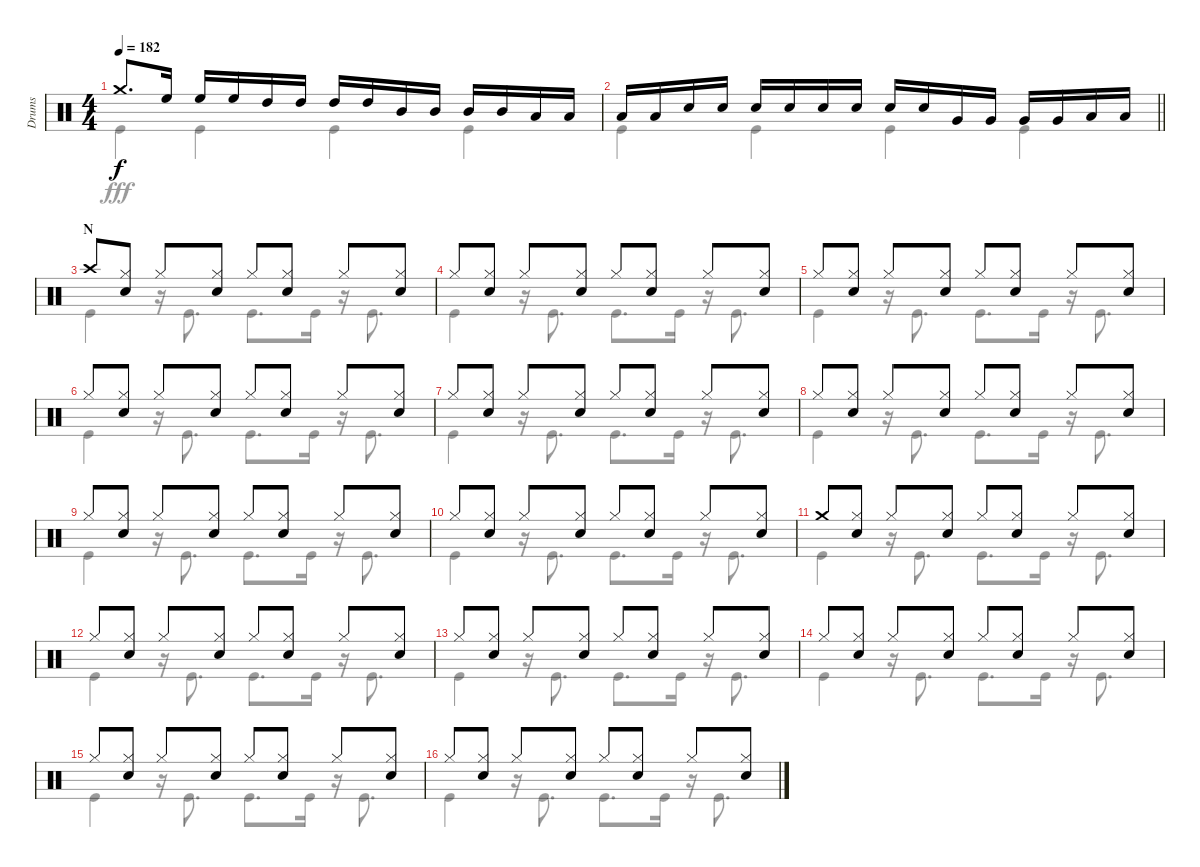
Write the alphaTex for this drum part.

\track ("Drums" "Drums") {instrument percussion}
\staff {score}
\articulation defaults
\voice
\ts (4 4)
\tempo 182
\clef neutral
\ks c "Crash medium (hit)".8{d dy f} "High Floor Tom (hit)".16 "High Floor Tom (hit)".16 "High Floor Tom (hit)".16 "High Tom (hit)".16 "High Tom (hit)".16 "High Tom (hit)".16 "High Tom (hit)".16 "Mid Tom (hit)".16 "Mid Tom (hit)".16 "Mid Tom (hit)".16 "Mid Tom (hit)".16 "Low Tom (hit)".16 "Low Tom (hit)".16
|
\barLineRight lightlight "Low Tom (hit)".16 "Low Tom (hit)".16 "Snare (hit) 2".16 "Snare (hit) 2".16 "Snare (hit) 2".16 "Snare (hit) 2".16 "Snare (hit) 2".16 "Snare (hit) 2".16 "Snare (hit) 2".16 "Snare (hit) 2".16 "Very Low Tom (hit)".16 "Very Low Tom (hit)".16 "Very Low Tom (hit)".16 "Very Low Tom (hit)".16 "Low Floor Tom (hit)".16 "Low Floor Tom (hit)".16
|
\section ("" "N")
"Crash high (hit)".8 ("Hi-Hat (closed)" "Snare (hit) 2").8 "Hi-Hat (closed)".8 ("Hi-Hat (closed)" "Snare (hit) 2").8 "Hi-Hat (closed)".8 ("Hi-Hat (closed)" "Snare (hit) 2").8 "Hi-Hat (closed)".8 ("Hi-Hat (closed)" "Snare (hit) 2").8 |
"Hi-Hat (closed)".8 ("Hi-Hat (closed)" "Snare (hit) 2").8 "Hi-Hat (closed)".8 ("Hi-Hat (closed)" "Snare (hit) 2").8 "Hi-Hat (closed)".8 ("Hi-Hat (closed)" "Snare (hit) 2").8 "Hi-Hat (closed)".8 ("Hi-Hat (closed)" "Snare (hit) 2").8 |
"Hi-Hat (closed)".8 ("Hi-Hat (closed)" "Snare (hit) 2").8 "Hi-Hat (closed)".8 ("Hi-Hat (closed)" "Snare (hit) 2").8 "Hi-Hat (closed)".8 ("Hi-Hat (closed)" "Snare (hit) 2").8 "Hi-Hat (closed)".8 ("Hi-Hat (closed)" "Snare (hit) 2").8 |
"Hi-Hat (closed)".8 ("Hi-Hat (closed)" "Snare (hit) 2").8 "Hi-Hat (closed)".8 ("Hi-Hat (closed)" "Snare (hit) 2").8 "Hi-Hat (closed)".8 ("Hi-Hat (closed)" "Snare (hit) 2").8 "Hi-Hat (closed)".8 ("Hi-Hat (closed)" "Snare (hit) 2").8 |
"Hi-Hat (closed)".8 ("Hi-Hat (closed)" "Snare (hit) 2").8 "Hi-Hat (closed)".8 ("Hi-Hat (closed)" "Snare (hit) 2").8 "Hi-Hat (closed)".8 ("Hi-Hat (closed)" "Snare (hit) 2").8 "Hi-Hat (closed)".8 ("Hi-Hat (closed)" "Snare (hit) 2").8 |
"Hi-Hat (closed)".8 ("Hi-Hat (closed)" "Snare (hit) 2").8 "Hi-Hat (closed)".8 ("Hi-Hat (closed)" "Snare (hit) 2").8 "Hi-Hat (closed)".8 ("Hi-Hat (closed)" "Snare (hit) 2").8 "Hi-Hat (closed)".8 ("Hi-Hat (closed)" "Snare (hit) 2").8 |
"Hi-Hat (closed)".8 ("Hi-Hat (closed)" "Snare (hit) 2").8 "Hi-Hat (closed)".8 ("Hi-Hat (closed)" "Snare (hit) 2").8 "Hi-Hat (closed)".8 ("Hi-Hat (closed)" "Snare (hit) 2").8 "Hi-Hat (closed)".8 ("Hi-Hat (closed)" "Snare (hit) 2").8 |
"Hi-Hat (closed)".8 ("Hi-Hat (closed)" "Snare (hit) 2").8 "Hi-Hat (closed)".8 ("Hi-Hat (closed)" "Snare (hit) 2").8 "Hi-Hat (closed)".8 ("Hi-Hat (closed)" "Snare (hit) 2").8 "Hi-Hat (closed)".8 ("Hi-Hat (closed)" "Snare (hit) 2").8 |
"Crash medium (hit)".8 ("Hi-Hat (closed)" "Snare (hit) 2").8 "Hi-Hat (closed)".8 ("Hi-Hat (closed)" "Snare (hit) 2").8 "Hi-Hat (closed)".8 ("Hi-Hat (closed)" "Snare (hit) 2").8 "Hi-Hat (closed)".8 ("Hi-Hat (closed)" "Snare (hit) 2").8 |
"Hi-Hat (closed)".8 ("Hi-Hat (closed)" "Snare (hit) 2").8 "Hi-Hat (closed)".8 ("Hi-Hat (closed)" "Snare (hit) 2").8 "Hi-Hat (closed)".8 ("Hi-Hat (closed)" "Snare (hit) 2").8 "Hi-Hat (closed)".8 ("Hi-Hat (closed)" "Snare (hit) 2").8 |
"Hi-Hat (closed)".8 ("Hi-Hat (closed)" "Snare (hit) 2").8 "Hi-Hat (closed)".8 ("Hi-Hat (closed)" "Snare (hit) 2").8 "Hi-Hat (closed)".8 ("Hi-Hat (closed)" "Snare (hit) 2").8 "Hi-Hat (closed)".8 ("Hi-Hat (closed)" "Snare (hit) 2").8 |
"Hi-Hat (closed)".8 ("Hi-Hat (closed)" "Snare (hit) 2").8 "Hi-Hat (closed)".8 ("Hi-Hat (closed)" "Snare (hit) 2").8 "Hi-Hat (closed)".8 ("Hi-Hat (closed)" "Snare (hit) 2").8 "Hi-Hat (closed)".8 ("Hi-Hat (closed)" "Snare (hit) 2").8 |
"Hi-Hat (closed)".8 ("Hi-Hat (closed)" "Snare (hit) 2").8 "Hi-Hat (closed)".8 ("Hi-Hat (closed)" "Snare (hit) 2").8 "Hi-Hat (closed)".8 ("Hi-Hat (closed)" "Snare (hit) 2").8 "Hi-Hat (closed)".8 ("Hi-Hat (closed)" "Snare (hit) 2").8 |
"Hi-Hat (closed)".8 ("Hi-Hat (closed)" "Snare (hit) 2").8 "Hi-Hat (closed)".8 ("Hi-Hat (closed)" "Snare (hit) 2").8 "Hi-Hat (closed)".8 ("Hi-Hat (closed)" "Snare (hit) 2").8 "Hi-Hat (closed)".8 ("Hi-Hat (closed)" "Snare (hit) 2").8
\voice
\clef neutral
\ottava regular
\simile none
\ks c "Kick (hit)".4{dy fff} "Kick (hit)".4 "Kick (hit)".4 "Kick (hit)".4
|
\barLineRight lightlight "Kick (hit)".4 "Kick (hit)".4 "Kick (hit)".4 "Kick (hit)".4
|
"Kick (hit)".4 r.16 "Kick (hit)".8{d} "Kick (hit)".8{d} "Kick (hit)".16 r.16 "Kick (hit)".8{d} |
"Kick (hit)".4 r.16 "Kick (hit)".8{d} "Kick (hit)".8{d} "Kick (hit)".16 r.16 "Kick (hit)".8{d} |
"Kick (hit)".4 r.16 "Kick (hit)".8{d} "Kick (hit)".8{d} "Kick (hit)".16 r.16 "Kick (hit)".8{d} |
"Kick (hit)".4 r.16 "Kick (hit)".8{d} "Kick (hit)".8{d} "Kick (hit)".16 r.16 "Kick (hit)".8{d} |
"Kick (hit)".4 r.16 "Kick (hit)".8{d} "Kick (hit)".8{d} "Kick (hit)".16 r.16 "Kick (hit)".8{d} |
"Kick (hit)".4 r.16 "Kick (hit)".8{d} "Kick (hit)".8{d} "Kick (hit)".16 r.16 "Kick (hit)".8{d} |
"Kick (hit)".4 r.16 "Kick (hit)".8{d} "Kick (hit)".8{d} "Kick (hit)".16 r.16 "Kick (hit)".8{d} |
"Kick (hit)".4 r.16 "Kick (hit)".8{d} "Kick (hit)".8{d} "Kick (hit)".16 r.16 "Kick (hit)".8{d} |
"Kick (hit)".4 r.16 "Kick (hit)".8{d} "Kick (hit)".8{d} "Kick (hit)".16 r.16 "Kick (hit)".8{d} |
"Kick (hit)".4 r.16 "Kick (hit)".8{d} "Kick (hit)".8{d} "Kick (hit)".16 r.16 "Kick (hit)".8{d} |
"Kick (hit)".4 r.16 "Kick (hit)".8{d} "Kick (hit)".8{d} "Kick (hit)".16 r.16 "Kick (hit)".8{d} |
"Kick (hit)".4 r.16 "Kick (hit)".8{d} "Kick (hit)".8{d} "Kick (hit)".16 r.16 "Kick (hit)".8{d} |
"Kick (hit)".4 r.16 "Kick (hit)".8{d} "Kick (hit)".8{d} "Kick (hit)".16 r.16 "Kick (hit)".8{d} |
"Kick (hit)".4 r.16 "Kick (hit)".8{d} "Kick (hit)".8{d} "Kick (hit)".16 r.16 "Kick (hit)".8{d}
